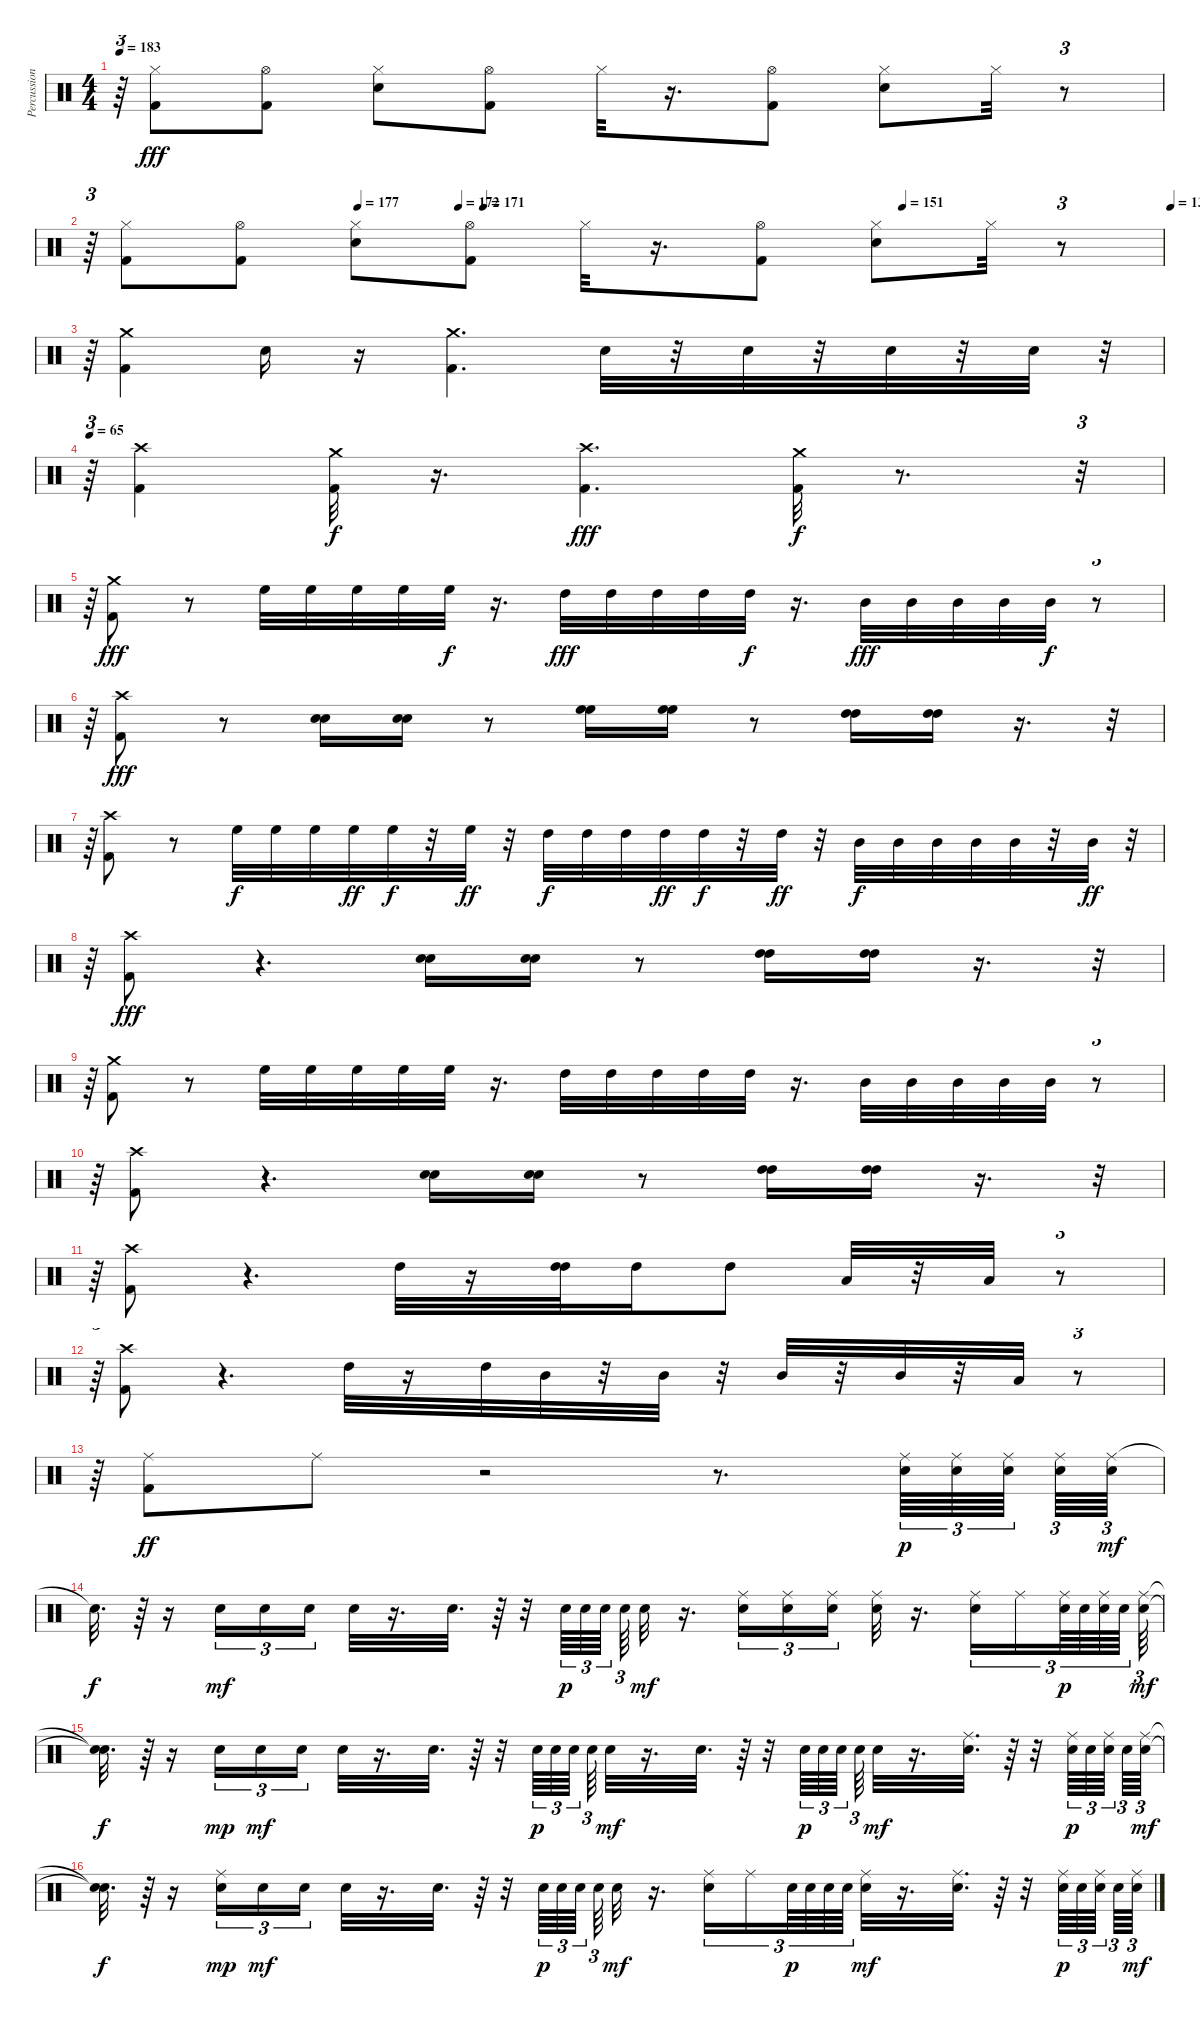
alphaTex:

\track ("Percussioni" "Percussion") {instrument percussion}
\staff {score}
\articulation defaults
\ts (4 4)
\tempo 183
\clef neutral
\ks c
r.64{tu (3 2) dy fff} ("Hi-Hat (closed)" "Kick (hit) 2").8 ("Hi-Hat (open)" "Kick (hit) 2").8 ("Hi-Hat (closed)" "Snare (hit) 2").8 ("Hi-Hat (open)" "Kick (hit) 2").8 "Hi-Hat (closed)".32 r.16{d} ("Hi-Hat (open)" "Kick (hit) 2").8 ("Hi-Hat (closed)" "Snare (hit) 2").8 "Hi-Hat (closed)".32 r.8{tu (3 2)} |
\tempo (177 0.25)
\tempo (172 0.34375)
\tempo (171 0.3671875)
\tempo (151 0.7578125)
\tempo (138 1.0078125)
r.64{tu (3 2)} ("Hi-Hat (closed)" "Kick (hit) 2").8 ("Hi-Hat (open)" "Kick (hit) 2").8 ("Hi-Hat (closed)" "Snare (hit) 2").8 ("Hi-Hat (open)" "Kick (hit) 2").8 "Hi-Hat (closed)".32 r.16{d} ("Hi-Hat (open)" "Kick (hit) 2").8 ("Hi-Hat (closed)" "Snare (hit) 2").8 "Hi-Hat (closed)".32 r.8{tu (3 2)} |
r.64{tu (3 2)} ("Crash medium (hit)" "Kick (hit) 2").4 "Snare (hit) 2".16 r.16 ("Crash medium (hit)" "Kick (hit) 2").4{d} "Snare (hit) 2".32 r.32 "Snare (hit) 2".32 r.32 "Snare (hit) 2".32 r.32 "Snare (hit) 2".32 r.32{tu (3 2)} |
\tempo 65
r.64{tu (3 2)} ("Crash high (hit)" "Kick (hit) 2").4 ("Crash medium (hit)" "Kick (hit) 2").32{dy f} r.16{d} ("Crash high (hit)" "Kick (hit) 2").4{d dy fff} ("Crash medium (hit)" "Kick (hit) 2").32{dy f} r.8{d} r.32{tu (3 2)} |
r.64{tu (3 2)} ("Crash medium (hit)" "Kick (hit) 2").8{dy fff} r.8 "High Floor Tom (hit)".32 "High Floor Tom (hit)".32 "High Floor Tom (hit)".32 "High Floor Tom (hit)".32 "High Floor Tom (hit)".32{dy f} r.16{d} "High Tom (hit)".32{dy fff} "High Tom (hit)".32 "High Tom (hit)".32 "High Tom (hit)".32 "High Tom (hit)".32{dy f} r.16{d} "Mid Tom (hit)".32{dy fff} "Mid Tom (hit)".32 "Mid Tom (hit)".32 "Mid Tom (hit)".32 "Mid Tom (hit)".32{dy f} r.8{tu (3 2)} |
r.64{tu (3 2)} ("Crash high (hit)" "Kick (hit) 2").8{dy fff} r.8 ("Snare (hit) 2" "Snare (hit) 2").16 ("Snare (hit) 2" "Snare (hit) 2").16 r.8 ("High Floor Tom (hit)" "High Floor Tom (hit)").16 ("High Floor Tom (hit)" "High Floor Tom (hit)").16 r.8 ("High Tom (hit)" "High Tom (hit)").16 ("High Tom (hit)" "High Tom (hit)").16 r.16{d} r.32{tu (3 2)} |
r.64{tu (3 2)} ("Crash high (hit)" "Kick (hit) 2").8 r.8 "High Floor Tom (hit)".32{dy f} "High Floor Tom (hit)".32 "High Floor Tom (hit)".32 "High Floor Tom (hit)".32{dy ff} "High Floor Tom (hit)".32{dy f} r.32 "High Floor Tom (hit)".32{dy ff} r.32 "High Tom (hit)".32{dy f} "High Tom (hit)".32 "High Tom (hit)".32 "High Tom (hit)".32{dy ff} "High Tom (hit)".32{dy f} r.32 "High Tom (hit)".32{dy ff} r.32 "Mid Tom (hit)".32{dy f} "Mid Tom (hit)".32 "Mid Tom (hit)".32 "Mid Tom (hit)".32 "Mid Tom (hit)".32 r.32 "Mid Tom (hit)".32{dy ff} r.32{tu (3 2)} |
r.64{tu (3 2)} ("Crash high (hit)" "Kick (hit) 2").8{dy fff} r.4{d} ("Snare (hit) 2" "Snare (hit) 2").16 ("Snare (hit) 2" "Snare (hit) 2").16 r.8 ("High Tom (hit)" "High Tom (hit)").16 ("High Tom (hit)" "High Tom (hit)").16 r.16{d} r.32{tu (3 2)} |
r.64{tu (3 2)} ("Crash medium (hit)" "Kick (hit) 2").8 r.8 "High Floor Tom (hit)".32 "High Floor Tom (hit)".32 "High Floor Tom (hit)".32 "High Floor Tom (hit)".32 "High Floor Tom (hit)".32 r.16{d} "High Tom (hit)".32 "High Tom (hit)".32 "High Tom (hit)".32 "High Tom (hit)".32 "High Tom (hit)".32 r.16{d} "Mid Tom (hit)".32 "Mid Tom (hit)".32 "Mid Tom (hit)".32 "Mid Tom (hit)".32 "Mid Tom (hit)".32 r.8{tu (3 2)} |
r.64{tu (3 2)} ("Crash high (hit)" "Kick (hit) 2").8 r.4{d} ("Snare (hit) 2" "Snare (hit) 2").16 ("Snare (hit) 2" "Snare (hit) 2").16 r.8 ("High Tom (hit)" "High Tom (hit)").16 ("High Tom (hit)" "High Tom (hit)").16 r.16{d} r.32{tu (3 2)} |
r.64{tu (3 2)} ("Crash high (hit)" "Kick (hit) 2").8 r.4{d} "High Tom (hit)".32 r.16 ("High Tom (hit)" "High Tom (hit)").32 "High Tom (hit)".16 "High Tom (hit)".8 "Low Tom (hit)".32 r.32 "Low Tom (hit)".32 r.8{tu (3 2)} |
r.64{tu (3 2)} ("Crash high (hit)" "Kick (hit) 2").8 r.4{d} "High Tom (hit)".32 r.16 "High Tom (hit)".32 "Mid Tom (hit)".32 r.32 "Mid Tom (hit)".32 r.32 "Mid Tom (hit)".32 r.32 "Mid Tom (hit)".32 r.32 "Low Tom (hit)".32 r.8{tu (3 2)} |
r.64{tu (3 2)} ("Ride (middle)" "Kick (hit) 2").8{dy ff} "Ride (middle)".8 r.2 r.8{d} ("Ride (middle)" "Snare (hit) 2").64{tu (3 2) dy p} ("Ride (middle)" "Snare (hit) 2").64{tu (3 2)} ("Ride (middle)" "Snare (hit) 2").64{tu (3 2) beam splitsecondary} ("Ride (middle)" "Snare (hit) 2").64{tu (3 2)} ("Ride (middle)" "Snare (hit) 2").64{tu (3 2) dy mf} |
"Snare (hit)"{t}.32{d dy f} r.64 r.16 "Snare (hit) 2".16{tu (3 2) dy mf} "Snare (hit) 2".16{tu (3 2)} "Snare (hit) 2".16{tu (3 2)} "Snare (hit) 2".32 r.16{d} "Snare (hit) 2".32{d} r.64 r.32 "Snare (hit) 2".64{tu (3 2) dy p} "Snare (hit) 2".64{tu (3 2)} "Snare (hit) 2".64{tu (3 2)} "Snare (hit) 2".64{tu (3 2)} "Snare (hit) 2".32{dy mf} r.16{d} ("Ride (middle)" "Snare (hit) 2").16{tu (3 2)} ("Ride (middle)" "Snare (hit) 2").16{tu (3 2)} ("Ride (middle)" "Snare (hit) 2").16{tu (3 2)} ("Ride (middle)" "Snare (hit) 2").32 r.16{d} ("Ride (middle)" "Snare (hit) 2").16{tu (3 2)} "Ride (middle)".16{tu (3 2)} ("Ride (middle)" "Snare (hit) 2").64{tu (3 2) dy p} "Snare (hit) 2".64{tu (3 2)} ("Ride (middle)" "Snare (hit) 2").64{tu (3 2)} "Snare (hit) 2".64{tu (3 2)} ("Ride (middle)" "Snare (hit) 2").64{tu (3 2) dy mf} |
("Snare (hit)"{t} "Snare (hit)"{t}).32{d dy f} r.64 r.16 "Snare (hit) 2".16{tu (3 2) dy mp} "Snare (hit) 2".16{tu (3 2) dy mf} "Snare (hit) 2".16{tu (3 2)} "Snare (hit) 2".32 r.16{d} "Snare (hit) 2".32{d} r.64 r.32 "Snare (hit) 2".64{tu (3 2) dy p} "Snare (hit) 2".64{tu (3 2)} "Snare (hit) 2".64{tu (3 2)} "Snare (hit) 2".64{tu (3 2)} "Snare (hit) 2".32{dy mf} r.16{d} "Snare (hit) 2".32{d} r.64 r.32 "Snare (hit) 2".64{tu (3 2) dy p} "Snare (hit) 2".64{tu (3 2)} "Snare (hit) 2".64{tu (3 2) beam splitsecondary} "Snare (hit) 2".64{tu (3 2)} "Snare (hit) 2".32{dy mf} r.16{d} ("Ride (middle)" "Snare (hit) 2").32{d} r.64 r.32 ("Ride (middle)" "Snare (hit) 2").64{tu (3 2) dy p} "Snare (hit) 2".64{tu (3 2)} ("Ride (middle)" "Snare (hit) 2").64{tu (3 2) beam splitsecondary} "Snare (hit) 2".64{tu (3 2)} ("Ride (middle)" "Snare (hit) 2").64{tu (3 2) dy mf} |
("Snare (hit)"{t} "Snare (hit)"{t}).32{d dy f} r.64 r.16 ("Ride (middle)" "Snare (hit) 2").16{tu (3 2) dy mp} "Snare (hit) 2".16{tu (3 2) dy mf} "Snare (hit) 2".16{tu (3 2)} "Snare (hit) 2".32 r.16{d} "Snare (hit) 2".32{d} r.64 r.32 "Snare (hit) 2".64{tu (3 2) dy p} "Snare (hit) 2".64{tu (3 2)} "Snare (hit) 2".64{tu (3 2)} "Snare (hit) 2".64{tu (3 2)} "Snare (hit) 2".32{dy mf} r.16{d} ("Ride (middle)" "Snare (hit) 2").16{tu (3 2)} "Ride (middle)".16{tu (3 2)} "Snare (hit) 2".64{tu (3 2) dy p} "Snare (hit) 2".64{tu (3 2)} "Snare (hit) 2".64{tu (3 2)} "Snare (hit) 2".64{tu (3 2)} ("Ride (middle)" "Snare (hit) 2").32{dy mf} r.16{d} ("Ride (middle)" "Snare (hit) 2").32{d} r.64 r.32 ("Ride (middle)" "Snare (hit) 2").64{tu (3 2) dy p} "Snare (hit) 2".64{tu (3 2)} ("Ride (middle)" "Snare (hit) 2").64{tu (3 2) beam splitsecondary} "Snare (hit) 2".64{tu (3 2)} ("Ride (middle)" "Snare (hit) 2").64{tu (3 2) dy mf}
